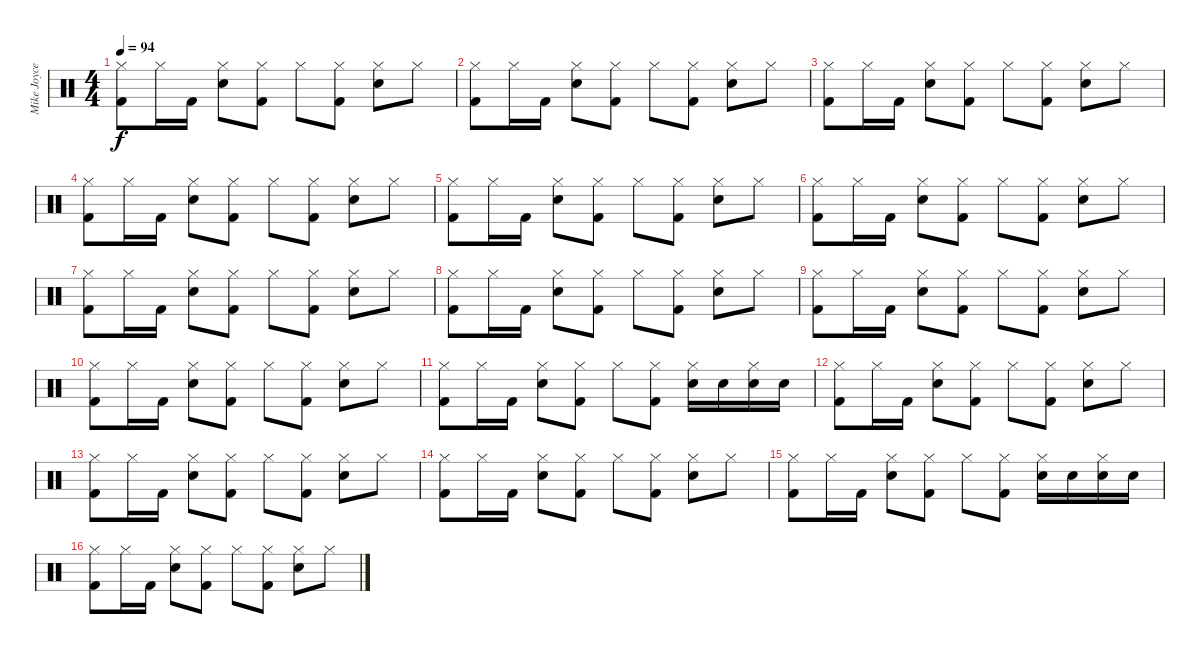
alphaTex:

\track ("Mike Joyce" "Mike Joyce") {instrument percussion}
\staff {score}
\articulation defaults
\ts (4 4)
\tempo 94
\clef neutral
\ks c
("Hi-Hat (closed)" "Kick (hit) 2").8{dy f} "Hi-Hat (closed)".16 "Kick (hit) 2".16 ("Hi-Hat (closed)" "Snare (hit) 2").8 ("Hi-Hat (closed)" "Kick (hit) 2").8 "Hi-Hat (closed)".8 ("Hi-Hat (closed)" "Kick (hit) 2").8 ("Hi-Hat (closed)" "Snare (hit) 2").8 "Hi-Hat (closed)".8 |
("Hi-Hat (closed)" "Kick (hit) 2").8 "Hi-Hat (closed)".16 "Kick (hit) 2".16 ("Hi-Hat (closed)" "Snare (hit) 2").8 ("Hi-Hat (closed)" "Kick (hit) 2").8 "Hi-Hat (closed)".8 ("Hi-Hat (closed)" "Kick (hit) 2").8 ("Hi-Hat (closed)" "Snare (hit) 2").8 "Hi-Hat (closed)".8 |
("Hi-Hat (closed)" "Kick (hit) 2").8 "Hi-Hat (closed)".16 "Kick (hit) 2".16 ("Hi-Hat (closed)" "Snare (hit) 2").8 ("Hi-Hat (closed)" "Kick (hit) 2").8 "Hi-Hat (closed)".8 ("Hi-Hat (closed)" "Kick (hit) 2").8 ("Hi-Hat (closed)" "Snare (hit) 2").8 "Hi-Hat (closed)".8 |
("Hi-Hat (closed)" "Kick (hit) 2").8 "Hi-Hat (closed)".16 "Kick (hit) 2".16 ("Hi-Hat (closed)" "Snare (hit) 2").8 ("Hi-Hat (closed)" "Kick (hit) 2").8 "Hi-Hat (closed)".8 ("Hi-Hat (closed)" "Kick (hit) 2").8 ("Hi-Hat (closed)" "Snare (hit) 2").8 "Hi-Hat (closed)".8 |
("Hi-Hat (closed)" "Kick (hit) 2").8 "Hi-Hat (closed)".16 "Kick (hit) 2".16 ("Hi-Hat (closed)" "Snare (hit) 2").8 ("Hi-Hat (closed)" "Kick (hit) 2").8 "Hi-Hat (closed)".8 ("Hi-Hat (closed)" "Kick (hit) 2").8 ("Hi-Hat (closed)" "Snare (hit) 2").8 "Hi-Hat (closed)".8 |
("Hi-Hat (closed)" "Kick (hit) 2").8 "Hi-Hat (closed)".16 "Kick (hit) 2".16 ("Hi-Hat (closed)" "Snare (hit) 2").8 ("Hi-Hat (closed)" "Kick (hit) 2").8 "Hi-Hat (closed)".8 ("Hi-Hat (closed)" "Kick (hit) 2").8 ("Hi-Hat (closed)" "Snare (hit) 2").8 "Hi-Hat (closed)".8 |
("Hi-Hat (closed)" "Kick (hit) 2").8 "Hi-Hat (closed)".16 "Kick (hit) 2".16 ("Hi-Hat (closed)" "Snare (hit) 2").8 ("Hi-Hat (closed)" "Kick (hit) 2").8 "Hi-Hat (closed)".8 ("Hi-Hat (closed)" "Kick (hit) 2").8 ("Hi-Hat (closed)" "Snare (hit) 2").8 "Hi-Hat (closed)".8 |
("Hi-Hat (closed)" "Kick (hit) 2").8 "Hi-Hat (closed)".16 "Kick (hit) 2".16 ("Hi-Hat (closed)" "Snare (hit) 2").8 ("Hi-Hat (closed)" "Kick (hit) 2").8 "Hi-Hat (closed)".8 ("Hi-Hat (closed)" "Kick (hit) 2").8 ("Hi-Hat (closed)" "Snare (hit) 2").8 "Hi-Hat (closed)".8 |
("Hi-Hat (closed)" "Kick (hit) 2").8 "Hi-Hat (closed)".16 "Kick (hit) 2".16 ("Hi-Hat (closed)" "Snare (hit) 2").8 ("Hi-Hat (closed)" "Kick (hit) 2").8 "Hi-Hat (closed)".8 ("Hi-Hat (closed)" "Kick (hit) 2").8 ("Hi-Hat (closed)" "Snare (hit) 2").8 "Hi-Hat (closed)".8 |
("Hi-Hat (closed)" "Kick (hit) 2").8 "Hi-Hat (closed)".16 "Kick (hit) 2".16 ("Hi-Hat (closed)" "Snare (hit) 2").8 ("Hi-Hat (closed)" "Kick (hit) 2").8 "Hi-Hat (closed)".8 ("Hi-Hat (closed)" "Kick (hit) 2").8 ("Hi-Hat (closed)" "Snare (hit) 2").8 "Hi-Hat (closed)".8 |
("Hi-Hat (closed)" "Kick (hit) 2").8 "Hi-Hat (closed)".16 "Kick (hit) 2".16 ("Hi-Hat (closed)" "Snare (hit) 2").8 ("Hi-Hat (closed)" "Kick (hit) 2").8 "Hi-Hat (closed)".8 ("Hi-Hat (closed)" "Kick (hit) 2").8 ("Hi-Hat (closed)" "Snare (hit) 2").16 "Snare (hit) 2".16 ("Hi-Hat (closed)" "Snare (hit) 2").16 "Snare (hit) 2".16 |
("Hi-Hat (closed)" "Kick (hit) 2").8 "Hi-Hat (closed)".16 "Kick (hit) 2".16 ("Hi-Hat (closed)" "Snare (hit) 2").8 ("Hi-Hat (closed)" "Kick (hit) 2").8 "Hi-Hat (closed)".8 ("Hi-Hat (closed)" "Kick (hit) 2").8 ("Hi-Hat (closed)" "Snare (hit) 2").8 "Hi-Hat (closed)".8 |
("Hi-Hat (closed)" "Kick (hit) 2").8 "Hi-Hat (closed)".16 "Kick (hit) 2".16 ("Hi-Hat (closed)" "Snare (hit) 2").8 ("Hi-Hat (closed)" "Kick (hit) 2").8 "Hi-Hat (closed)".8 ("Hi-Hat (closed)" "Kick (hit) 2").8 ("Hi-Hat (closed)" "Snare (hit) 2").8 "Hi-Hat (closed)".8 |
("Hi-Hat (closed)" "Kick (hit) 2").8 "Hi-Hat (closed)".16 "Kick (hit) 2".16 ("Hi-Hat (closed)" "Snare (hit) 2").8 ("Hi-Hat (closed)" "Kick (hit) 2").8 "Hi-Hat (closed)".8 ("Hi-Hat (closed)" "Kick (hit) 2").8 ("Hi-Hat (closed)" "Snare (hit) 2").8 "Hi-Hat (closed)".8 |
("Hi-Hat (closed)" "Kick (hit) 2").8 "Hi-Hat (closed)".16 "Kick (hit) 2".16 ("Hi-Hat (closed)" "Snare (hit) 2").8 ("Hi-Hat (closed)" "Kick (hit) 2").8 "Hi-Hat (closed)".8 ("Hi-Hat (closed)" "Kick (hit) 2").8 ("Hi-Hat (closed)" "Snare (hit) 2").16 "Snare (hit) 2".16 ("Hi-Hat (closed)" "Snare (hit) 2").16 "Snare (hit) 2".16 |
("Hi-Hat (closed)" "Kick (hit) 2").8 "Hi-Hat (closed)".16 "Kick (hit) 2".16 ("Hi-Hat (closed)" "Snare (hit) 2").8 ("Hi-Hat (closed)" "Kick (hit) 2").8 "Hi-Hat (closed)".8 ("Hi-Hat (closed)" "Kick (hit) 2").8 ("Hi-Hat (closed)" "Snare (hit) 2").8 "Hi-Hat (closed)".8
